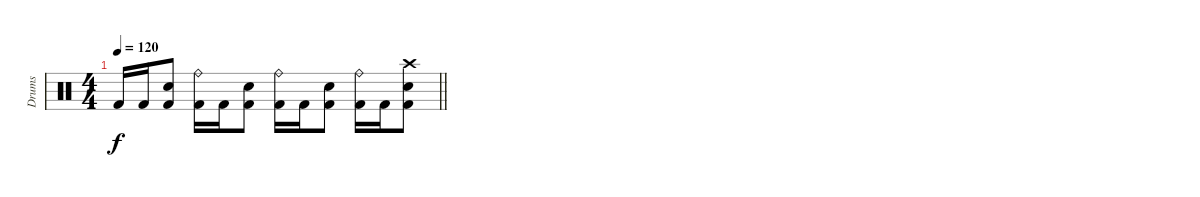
\track ("Drums" "Drums") {instrument percussion}
\staff
\articulation defaults
\ts (4 4)
\tempo 120
\clef neutral
\barLineRight lightlight
\ks c "Kick (hit) 2".16{dy f} "Kick (hit) 2".16
("Electric Snare (hit)" "Kick (hit) 2").8 ("Ride (bell)" "Kick (hit) 2").16 "Kick (hit) 2".16 ("Electric Snare (hit)" "Kick (hit) 2").8 ("Ride (bell)" "Kick (hit) 2").16 "Kick (hit) 2".16 ("Electric Snare (hit)" "Kick (hit) 2").8 ("Ride (bell)" "Kick (hit) 2").16 "Kick (hit) 2".16 ("Crash high (hit)" "Electric Snare (hit)" "Kick (hit) 2").8
